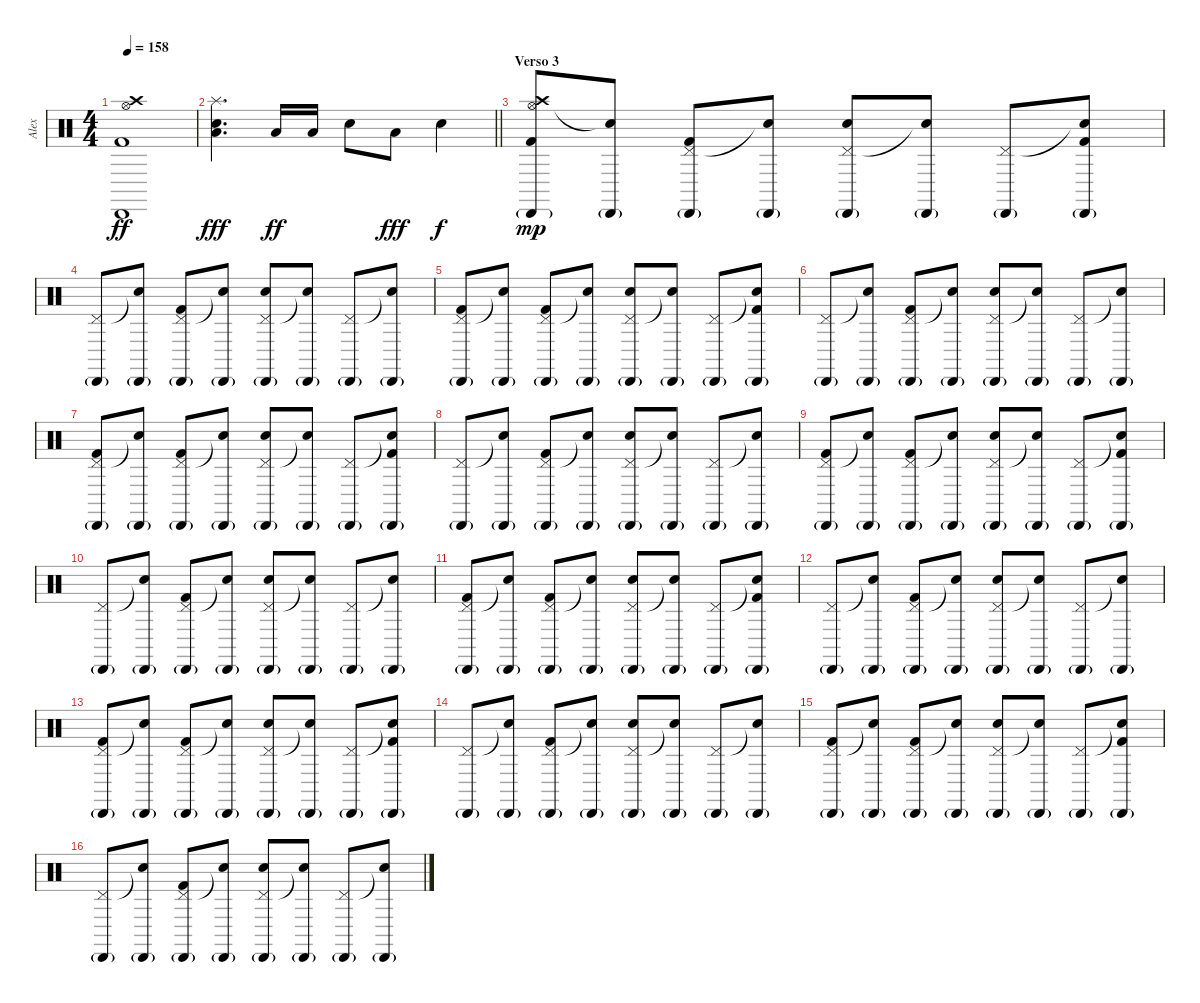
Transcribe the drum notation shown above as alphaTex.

\track ("Alex" "Alex") {instrument percussion}
\staff {score}
\articulation defaults
\ts (4 4)
\tempo 158
\clef neutral
\ks c
("Hi-Hat (open)" "Kick (hit) 2" "Crash high (hit)" "Cabasa (hit)").1{dy ff} |
\barLineRight lightlight
("Electric Snare (hit)" "Low Tom (hit)" "Splash (hit)").4{d dy fff} "Low Tom (hit)".16{dy ff} "Low Tom (hit)".16 "Electric Snare (hit)".8 "Low Tom (hit)".8{dy fff} "Electric Snare (hit)".4{dy f} |
\section ("" "Verso 3")
("Hi-Hat (open)" "Kick (hit) 2" "Crash high (hit)" "Cabasa (hit)"{g}).8{dy mp} ("Snare (hit)"{t} "Cabasa (hit)"{g}).8 ("Pedal Hi-Hat (hit)" "Kick (hit) 2" "Cabasa (hit)"{g}).8 ("Snare (hit)"{t} "Cabasa (hit)"{g}).8 ("Pedal Hi-Hat (hit)" "Electric Snare (hit)" "Cabasa (hit)"{g}).8 ("Snare (hit)"{t} "Cabasa (hit)"{g}).8 ("Pedal Hi-Hat (hit)" "Cabasa (hit)"{g}).8 ("Snare (hit)"{t} "Kick (hit) 2" "Cabasa (hit)"{g}).8 |
("Pedal Hi-Hat (hit)" "Cabasa (hit)"{g}).8 ("Snare (hit)"{t} "Cabasa (hit)"{g}).8 ("Pedal Hi-Hat (hit)" "Kick (hit) 2" "Cabasa (hit)"{g}).8 ("Snare (hit)"{t} "Cabasa (hit)"{g}).8 ("Pedal Hi-Hat (hit)" "Electric Snare (hit)" "Cabasa (hit)"{g}).8 ("Snare (hit)"{t} "Cabasa (hit)"{g}).8 ("Pedal Hi-Hat (hit)" "Cabasa (hit)"{g}).8 ("Snare (hit)"{t} "Cabasa (hit)"{g}).8 |
("Pedal Hi-Hat (hit)" "Kick (hit) 2" "Cabasa (hit)"{g}).8 ("Snare (hit)"{t} "Cabasa (hit)"{g}).8 ("Pedal Hi-Hat (hit)" "Kick (hit) 2" "Cabasa (hit)"{g}).8 ("Snare (hit)"{t} "Cabasa (hit)"{g}).8 ("Pedal Hi-Hat (hit)" "Electric Snare (hit)" "Cabasa (hit)"{g}).8 ("Snare (hit)"{t} "Cabasa (hit)"{g}).8 ("Pedal Hi-Hat (hit)" "Cabasa (hit)"{g}).8 ("Snare (hit)"{t} "Kick (hit) 2" "Cabasa (hit)"{g}).8 |
("Pedal Hi-Hat (hit)" "Cabasa (hit)"{g}).8 ("Snare (hit)"{t} "Cabasa (hit)"{g}).8 ("Pedal Hi-Hat (hit)" "Kick (hit) 2" "Cabasa (hit)"{g}).8 ("Snare (hit)"{t} "Cabasa (hit)"{g}).8 ("Pedal Hi-Hat (hit)" "Electric Snare (hit)" "Cabasa (hit)"{g}).8 ("Snare (hit)"{t} "Cabasa (hit)"{g}).8 ("Pedal Hi-Hat (hit)" "Cabasa (hit)"{g}).8 ("Snare (hit)"{t} "Cabasa (hit)"{g}).8 |
("Pedal Hi-Hat (hit)" "Kick (hit) 2" "Cabasa (hit)"{g}).8 ("Snare (hit)"{t} "Cabasa (hit)"{g}).8 ("Pedal Hi-Hat (hit)" "Kick (hit) 2" "Cabasa (hit)"{g}).8 ("Snare (hit)"{t} "Cabasa (hit)"{g}).8 ("Pedal Hi-Hat (hit)" "Electric Snare (hit)" "Cabasa (hit)"{g}).8 ("Snare (hit)"{t} "Cabasa (hit)"{g}).8 ("Pedal Hi-Hat (hit)" "Cabasa (hit)"{g}).8 ("Snare (hit)"{t} "Kick (hit) 2" "Cabasa (hit)"{g}).8 |
("Pedal Hi-Hat (hit)" "Cabasa (hit)"{g}).8 ("Snare (hit)"{t} "Cabasa (hit)"{g}).8 ("Pedal Hi-Hat (hit)" "Kick (hit) 2" "Cabasa (hit)"{g}).8 ("Snare (hit)"{t} "Cabasa (hit)"{g}).8 ("Pedal Hi-Hat (hit)" "Electric Snare (hit)" "Cabasa (hit)"{g}).8 ("Snare (hit)"{t} "Cabasa (hit)"{g}).8 ("Pedal Hi-Hat (hit)" "Cabasa (hit)"{g}).8 ("Snare (hit)"{t} "Cabasa (hit)"{g}).8 |
("Pedal Hi-Hat (hit)" "Kick (hit) 2" "Cabasa (hit)"{g}).8 ("Snare (hit)"{t} "Cabasa (hit)"{g}).8 ("Pedal Hi-Hat (hit)" "Kick (hit) 2" "Cabasa (hit)"{g}).8 ("Snare (hit)"{t} "Cabasa (hit)"{g}).8 ("Pedal Hi-Hat (hit)" "Electric Snare (hit)" "Cabasa (hit)"{g}).8 ("Snare (hit)"{t} "Cabasa (hit)"{g}).8 ("Pedal Hi-Hat (hit)" "Cabasa (hit)"{g}).8 ("Snare (hit)"{t} "Kick (hit) 2" "Cabasa (hit)"{g}).8 |
("Pedal Hi-Hat (hit)" "Cabasa (hit)"{g}).8 ("Snare (hit)"{t} "Cabasa (hit)"{g}).8 ("Pedal Hi-Hat (hit)" "Kick (hit) 2" "Cabasa (hit)"{g}).8 ("Snare (hit)"{t} "Cabasa (hit)"{g}).8 ("Pedal Hi-Hat (hit)" "Electric Snare (hit)" "Cabasa (hit)"{g}).8 ("Snare (hit)"{t} "Cabasa (hit)"{g}).8 ("Pedal Hi-Hat (hit)" "Cabasa (hit)"{g}).8 ("Snare (hit)"{t} "Cabasa (hit)"{g}).8 |
("Pedal Hi-Hat (hit)" "Kick (hit) 2" "Cabasa (hit)"{g}).8 ("Snare (hit)"{t} "Cabasa (hit)"{g}).8 ("Pedal Hi-Hat (hit)" "Kick (hit) 2" "Cabasa (hit)"{g}).8 ("Snare (hit)"{t} "Cabasa (hit)"{g}).8 ("Pedal Hi-Hat (hit)" "Electric Snare (hit)" "Cabasa (hit)"{g}).8 ("Snare (hit)"{t} "Cabasa (hit)"{g}).8 ("Pedal Hi-Hat (hit)" "Cabasa (hit)"{g}).8 ("Snare (hit)"{t} "Kick (hit) 2" "Cabasa (hit)"{g}).8 |
("Pedal Hi-Hat (hit)" "Cabasa (hit)"{g}).8 ("Snare (hit)"{t} "Cabasa (hit)"{g}).8 ("Pedal Hi-Hat (hit)" "Kick (hit) 2" "Cabasa (hit)"{g}).8 ("Snare (hit)"{t} "Cabasa (hit)"{g}).8 ("Pedal Hi-Hat (hit)" "Electric Snare (hit)" "Cabasa (hit)"{g}).8 ("Snare (hit)"{t} "Cabasa (hit)"{g}).8 ("Pedal Hi-Hat (hit)" "Cabasa (hit)"{g}).8 ("Snare (hit)"{t} "Cabasa (hit)"{g}).8 |
("Pedal Hi-Hat (hit)" "Kick (hit) 2" "Cabasa (hit)"{g}).8 ("Snare (hit)"{t} "Cabasa (hit)"{g}).8 ("Pedal Hi-Hat (hit)" "Kick (hit) 2" "Cabasa (hit)"{g}).8 ("Snare (hit)"{t} "Cabasa (hit)"{g}).8 ("Pedal Hi-Hat (hit)" "Electric Snare (hit)" "Cabasa (hit)"{g}).8 ("Snare (hit)"{t} "Cabasa (hit)"{g}).8 ("Pedal Hi-Hat (hit)" "Cabasa (hit)"{g}).8 ("Snare (hit)"{t} "Kick (hit) 2" "Cabasa (hit)"{g}).8 |
("Pedal Hi-Hat (hit)" "Cabasa (hit)"{g}).8 ("Snare (hit)"{t} "Cabasa (hit)"{g}).8 ("Pedal Hi-Hat (hit)" "Kick (hit) 2" "Cabasa (hit)"{g}).8 ("Snare (hit)"{t} "Cabasa (hit)"{g}).8 ("Pedal Hi-Hat (hit)" "Electric Snare (hit)" "Cabasa (hit)"{g}).8 ("Snare (hit)"{t} "Cabasa (hit)"{g}).8 ("Pedal Hi-Hat (hit)" "Cabasa (hit)"{g}).8 ("Snare (hit)"{t} "Cabasa (hit)"{g}).8 |
("Pedal Hi-Hat (hit)" "Kick (hit) 2" "Cabasa (hit)"{g}).8 ("Snare (hit)"{t} "Cabasa (hit)"{g}).8 ("Pedal Hi-Hat (hit)" "Kick (hit) 2" "Cabasa (hit)"{g}).8 ("Snare (hit)"{t} "Cabasa (hit)"{g}).8 ("Pedal Hi-Hat (hit)" "Electric Snare (hit)" "Cabasa (hit)"{g}).8 ("Snare (hit)"{t} "Cabasa (hit)"{g}).8 ("Pedal Hi-Hat (hit)" "Cabasa (hit)"{g}).8 ("Snare (hit)"{t} "Kick (hit) 2" "Cabasa (hit)"{g}).8 |
("Pedal Hi-Hat (hit)" "Cabasa (hit)"{g}).8 ("Snare (hit)"{t} "Cabasa (hit)"{g}).8 ("Pedal Hi-Hat (hit)" "Kick (hit) 2" "Cabasa (hit)"{g}).8 ("Snare (hit)"{t} "Cabasa (hit)"{g}).8 ("Pedal Hi-Hat (hit)" "Electric Snare (hit)" "Cabasa (hit)"{g}).8 ("Snare (hit)"{t} "Cabasa (hit)"{g}).8 ("Pedal Hi-Hat (hit)" "Cabasa (hit)"{g}).8 ("Snare (hit)"{t} "Cabasa (hit)"{g}).8
